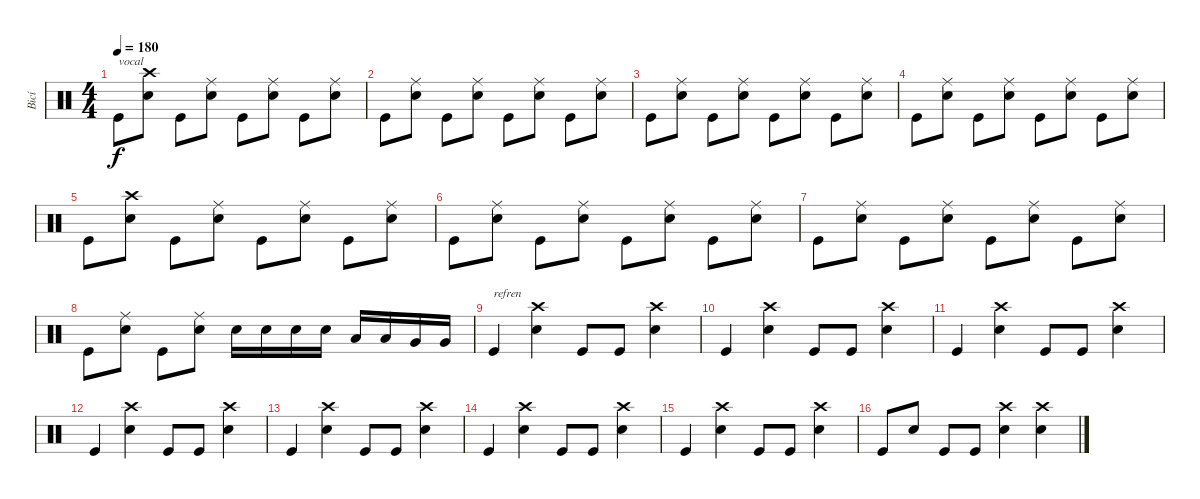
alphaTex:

\track ("Bicí" "Bicí") {instrument percussion}
\staff {score}
\articulation defaults
\ts (4 4)
\tempo 180
\clef neutral
\ks c "Kick (hit)".8{txt "vocal" dy f}
("Snare (hit) 2" "Crash high (hit)").8 "Kick (hit)".8 ("Snare (hit) 2" "Ride (middle)").8 "Kick (hit)".8 ("Snare (hit) 2" "Ride (middle)").8 "Kick (hit)".8 ("Snare (hit) 2" "Ride (middle)").8 |
"Kick (hit)".8 ("Snare (hit) 2" "Ride (middle)").8 "Kick (hit)".8 ("Snare (hit) 2" "Ride (middle)").8 "Kick (hit)".8 ("Snare (hit) 2" "Ride (middle)").8 "Kick (hit)".8 ("Snare (hit) 2" "Ride (middle)").8 |
"Kick (hit)".8 ("Snare (hit) 2" "Ride (middle)").8 "Kick (hit)".8 ("Snare (hit) 2" "Ride (middle)").8 "Kick (hit)".8 ("Snare (hit) 2" "Ride (middle)").8 "Kick (hit)".8 ("Snare (hit) 2" "Ride (middle)").8 |
"Kick (hit)".8 ("Snare (hit) 2" "Ride (middle)").8 "Kick (hit)".8 ("Snare (hit) 2" "Ride (middle)").8 "Kick (hit)".8 ("Snare (hit) 2" "Ride (middle)").8 "Kick (hit)".8 ("Snare (hit) 2" "Ride (middle)").8 |
"Kick (hit)".8 ("Snare (hit) 2" "Crash high (hit)").8 "Kick (hit)".8 ("Snare (hit) 2" "Ride (middle)").8 "Kick (hit)".8 ("Snare (hit) 2" "Ride (middle)").8 "Kick (hit)".8 ("Snare (hit) 2" "Ride (middle)").8 |
"Kick (hit)".8 ("Snare (hit) 2" "Ride (middle)").8 "Kick (hit)".8 ("Snare (hit) 2" "Ride (middle)").8 "Kick (hit)".8 ("Snare (hit) 2" "Ride (middle)").8 "Kick (hit)".8 ("Snare (hit) 2" "Ride (middle)").8 |
"Kick (hit)".8 ("Snare (hit) 2" "Ride (middle)").8 "Kick (hit)".8 ("Snare (hit) 2" "Ride (middle)").8 "Kick (hit)".8 ("Snare (hit) 2" "Ride (middle)").8 "Kick (hit)".8 ("Snare (hit) 2" "Ride (middle)").8 |
"Kick (hit)".8 ("Snare (hit) 2" "Ride (middle)").8 "Kick (hit)".8 ("Snare (hit) 2" "Ride (middle)").8 "Snare (hit) 2".16 "Snare (hit) 2".16 "Snare (hit) 2".16 "Snare (hit) 2".16 "Low Tom (hit)".16 "Low Tom (hit)".16 "Very Low Tom (hit)".16 "Very Low Tom (hit)".16 |
"Kick (hit)".4{txt "refren"} ("Snare (hit) 2" "Crash high (hit)").4 "Kick (hit)".8 "Kick (hit)".8 ("Snare (hit) 2" "Crash high (hit)").4 |
"Kick (hit)".4 ("Snare (hit) 2" "Crash high (hit)").4 "Kick (hit)".8 "Kick (hit)".8 ("Snare (hit) 2" "Crash high (hit)").4 |
"Kick (hit)".4 ("Snare (hit) 2" "Crash high (hit)").4 "Kick (hit)".8 "Kick (hit)".8 ("Snare (hit) 2" "Crash high (hit)").4 |
"Kick (hit)".4 ("Snare (hit) 2" "Crash high (hit)").4 "Kick (hit)".8 "Kick (hit)".8 ("Snare (hit) 2" "Crash high (hit)").4 |
"Kick (hit)".4 ("Snare (hit) 2" "Crash high (hit)").4 "Kick (hit)".8 "Kick (hit)".8 ("Snare (hit) 2" "Crash high (hit)").4 |
"Kick (hit)".4 ("Snare (hit) 2" "Crash high (hit)").4 "Kick (hit)".8 "Kick (hit)".8 ("Snare (hit) 2" "Crash high (hit)").4 |
"Kick (hit)".4 ("Snare (hit) 2" "Crash high (hit)").4 "Kick (hit)".8 "Kick (hit)".8 ("Snare (hit) 2" "Crash high (hit)").4 |
"Kick (hit)".8 "Snare (hit) 2".8 "Kick (hit)".8 "Kick (hit)".8 ("Snare (hit) 2" "Crash high (hit)").4 ("Snare (hit) 2" "Crash high (hit)").4
